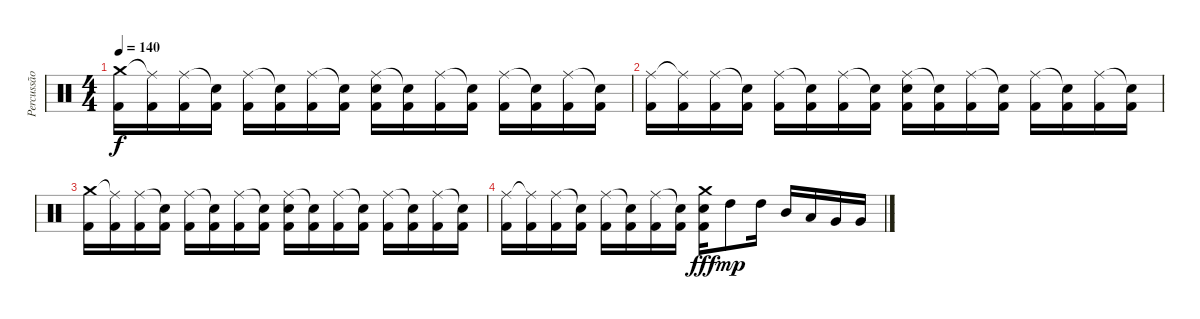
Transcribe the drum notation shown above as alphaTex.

\track ("Percussão" "Percussão") {instrument percussion}
\staff {score}
\articulation defaults
\ts (4 4)
\tempo 140
\clef neutral
\ks c
("Crash medium (hit)" "Kick (hit) 2").16{dy f} ("Ride (middle)"{t} "Kick (hit) 2").16 ("Ride (middle)" "Kick (hit) 2").16 ("Snare (hit)"{t} "Kick (hit) 2").16 ("Ride (middle)" "Kick (hit) 2").16 ("Snare (hit)"{t} "Kick (hit) 2").16 ("Ride (middle)" "Kick (hit) 2").16 ("Snare (hit)"{t} "Kick (hit) 2").16 ("Ride (middle)" "Electric Snare (hit)" "Kick (hit) 2").16 ("Snare (hit)"{t} "Kick (hit) 2").16 ("Ride (middle)" "Kick (hit) 2").16 ("Snare (hit)"{t} "Kick (hit) 2").16 ("Ride (middle)" "Kick (hit) 2").16 ("Snare (hit)"{t} "Kick (hit) 2").16 ("Ride (middle)" "Kick (hit) 2").16 ("Snare (hit)"{t} "Kick (hit) 2").16 |
("Ride (middle)" "Kick (hit) 2").16 ("Ride (middle)"{t} "Kick (hit) 2").16 ("Ride (middle)" "Kick (hit) 2").16 ("Snare (hit)"{t} "Kick (hit) 2").16 ("Ride (middle)" "Kick (hit) 2").16 ("Snare (hit)"{t} "Kick (hit) 2").16 ("Ride (middle)" "Kick (hit) 2").16 ("Snare (hit)"{t} "Kick (hit) 2").16 ("Ride (middle)" "Electric Snare (hit)" "Kick (hit) 2").16 ("Snare (hit)"{t} "Kick (hit) 2").16 ("Ride (middle)" "Kick (hit) 2").16 ("Snare (hit)"{t} "Kick (hit) 2").16 ("Ride (middle)" "Kick (hit) 2").16 ("Snare (hit)"{t} "Kick (hit) 2").16 ("Ride (middle)" "Kick (hit) 2").16 ("Snare (hit)"{t} "Kick (hit) 2").16 |
("Crash medium (hit)" "Kick (hit) 2").16 ("Ride (middle)"{t} "Kick (hit) 2").16 ("Ride (middle)" "Kick (hit) 2").16 ("Snare (hit)"{t} "Kick (hit) 2").16 ("Ride (middle)" "Kick (hit) 2").16 ("Snare (hit)"{t} "Kick (hit) 2").16 ("Ride (middle)" "Kick (hit) 2").16 ("Snare (hit)"{t} "Kick (hit) 2").16 ("Ride (middle)" "Electric Snare (hit)" "Kick (hit) 2").16 ("Snare (hit)"{t} "Kick (hit) 2").16 ("Ride (middle)" "Kick (hit) 2").16 ("Snare (hit)"{t} "Kick (hit) 2").16 ("Ride (middle)" "Kick (hit) 2").16 ("Snare (hit)"{t} "Kick (hit) 2").16 ("Ride (middle)" "Kick (hit) 2").16 ("Snare (hit)"{t} "Kick (hit) 2").16 |
("Ride (middle)" "Kick (hit) 2").16 ("Ride (middle)"{t} "Kick (hit) 2").16 ("Ride (middle)" "Kick (hit) 2").16 ("Snare (hit)"{t} "Kick (hit) 2").16 ("Ride (middle)" "Kick (hit) 2").16 ("Snare (hit)"{t} "Kick (hit) 2").16 ("Ride (middle)" "Kick (hit) 2").16 ("Snare (hit)"{t} "Kick (hit) 2").16 ("Crash medium (hit)" "Electric Snare (hit)" "Kick (hit) 2").16{dy fff} "High Tom (hit)".8{dy mp} "High Tom (hit)".16 "Mid Tom (hit)".16 "Low Tom (hit)".16 "Very Low Tom (hit)".16 "Very Low Tom (hit)".16
